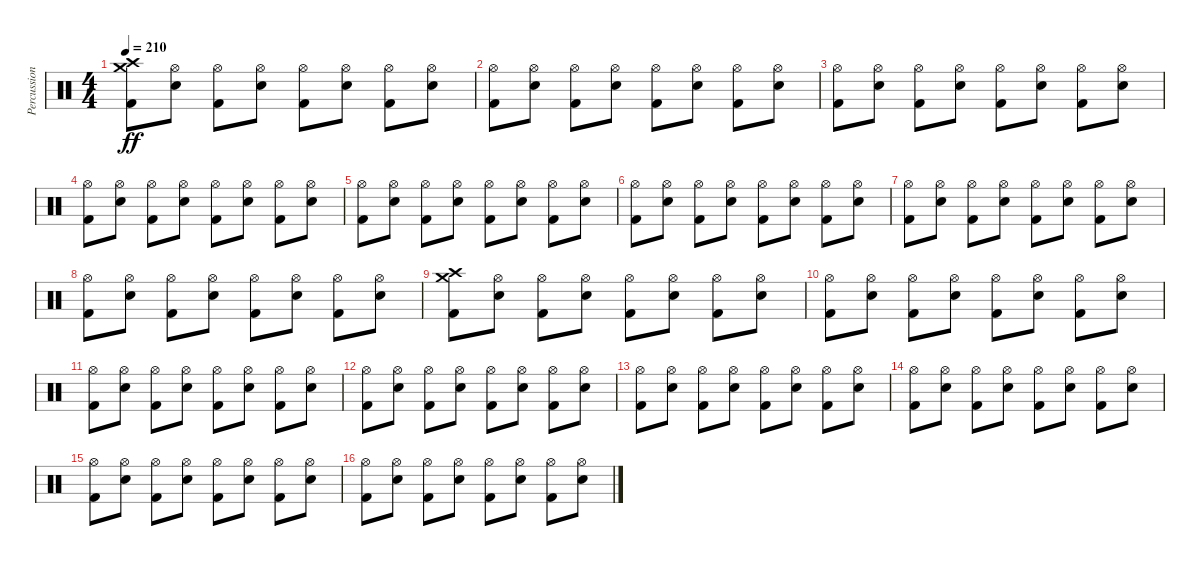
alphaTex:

\track ("Percussion" "Percussion") {instrument percussion}
\staff {score}
\articulation defaults
\ts (4 4)
\tempo 210
\clef neutral
\ks c
("Kick (hit) 2" "Crash medium (hit)" "Crash high (hit)").8{dy ff} ("Electric Snare (hit)" "Hi-Hat (open)").8 ("Kick (hit) 2" "Hi-Hat (open)").8 ("Electric Snare (hit)" "Hi-Hat (open)").8 ("Kick (hit) 2" "Hi-Hat (open)").8 ("Electric Snare (hit)" "Hi-Hat (open)").8 ("Kick (hit) 2" "Hi-Hat (open)").8 ("Electric Snare (hit)" "Hi-Hat (open)").8 |
("Kick (hit) 2" "Hi-Hat (open)").8 ("Electric Snare (hit)" "Hi-Hat (open)").8 ("Kick (hit) 2" "Hi-Hat (open)").8 ("Electric Snare (hit)" "Hi-Hat (open)").8 ("Kick (hit) 2" "Hi-Hat (open)").8 ("Electric Snare (hit)" "Hi-Hat (open)").8 ("Kick (hit) 2" "Hi-Hat (open)").8 ("Electric Snare (hit)" "Hi-Hat (open)").8 |
("Kick (hit) 2" "Hi-Hat (open)").8 ("Electric Snare (hit)" "Hi-Hat (open)").8 ("Kick (hit) 2" "Hi-Hat (open)").8 ("Electric Snare (hit)" "Hi-Hat (open)").8 ("Kick (hit) 2" "Hi-Hat (open)").8 ("Electric Snare (hit)" "Hi-Hat (open)").8 ("Kick (hit) 2" "Hi-Hat (open)").8 ("Electric Snare (hit)" "Hi-Hat (open)").8 |
("Kick (hit) 2" "Hi-Hat (open)").8 ("Electric Snare (hit)" "Hi-Hat (open)").8 ("Kick (hit) 2" "Hi-Hat (open)").8 ("Electric Snare (hit)" "Hi-Hat (open)").8 ("Kick (hit) 2" "Hi-Hat (open)").8 ("Electric Snare (hit)" "Hi-Hat (open)").8 ("Kick (hit) 2" "Hi-Hat (open)").8 ("Electric Snare (hit)" "Hi-Hat (open)").8 |
("Kick (hit) 2" "Hi-Hat (open)").8 ("Electric Snare (hit)" "Hi-Hat (open)").8 ("Kick (hit) 2" "Hi-Hat (open)").8 ("Electric Snare (hit)" "Hi-Hat (open)").8 ("Kick (hit) 2" "Hi-Hat (open)").8 ("Electric Snare (hit)" "Hi-Hat (open)").8 ("Kick (hit) 2" "Hi-Hat (open)").8 ("Electric Snare (hit)" "Hi-Hat (open)").8 |
("Kick (hit) 2" "Hi-Hat (open)").8 ("Electric Snare (hit)" "Hi-Hat (open)").8 ("Kick (hit) 2" "Hi-Hat (open)").8 ("Electric Snare (hit)" "Hi-Hat (open)").8 ("Kick (hit) 2" "Hi-Hat (open)").8 ("Electric Snare (hit)" "Hi-Hat (open)").8 ("Kick (hit) 2" "Hi-Hat (open)").8 ("Electric Snare (hit)" "Hi-Hat (open)").8 |
("Kick (hit) 2" "Hi-Hat (open)").8 ("Electric Snare (hit)" "Hi-Hat (open)").8 ("Kick (hit) 2" "Hi-Hat (open)").8 ("Electric Snare (hit)" "Hi-Hat (open)").8 ("Kick (hit) 2" "Hi-Hat (open)").8 ("Electric Snare (hit)" "Hi-Hat (open)").8 ("Kick (hit) 2" "Hi-Hat (open)").8 ("Electric Snare (hit)" "Hi-Hat (open)").8 |
("Kick (hit) 2" "Hi-Hat (open)").8 ("Electric Snare (hit)" "Hi-Hat (open)").8 ("Kick (hit) 2" "Hi-Hat (open)").8 ("Electric Snare (hit)" "Hi-Hat (open)").8 ("Kick (hit) 2" "Hi-Hat (open)").8 ("Electric Snare (hit)" "Hi-Hat (open)").8 ("Kick (hit) 2" "Hi-Hat (open)").8 ("Electric Snare (hit)" "Hi-Hat (open)").8 |
("Kick (hit) 2" "Crash medium (hit)" "Crash high (hit)").8 ("Electric Snare (hit)" "Hi-Hat (open)").8 ("Kick (hit) 2" "Hi-Hat (open)").8 ("Electric Snare (hit)" "Hi-Hat (open)").8 ("Kick (hit) 2" "Hi-Hat (open)").8 ("Electric Snare (hit)" "Hi-Hat (open)").8 ("Kick (hit) 2" "Hi-Hat (open)").8 ("Electric Snare (hit)" "Hi-Hat (open)").8 |
("Kick (hit) 2" "Hi-Hat (open)").8 ("Electric Snare (hit)" "Hi-Hat (open)").8 ("Kick (hit) 2" "Hi-Hat (open)").8 ("Electric Snare (hit)" "Hi-Hat (open)").8 ("Kick (hit) 2" "Hi-Hat (open)").8 ("Electric Snare (hit)" "Hi-Hat (open)").8 ("Kick (hit) 2" "Hi-Hat (open)").8 ("Electric Snare (hit)" "Hi-Hat (open)").8 |
("Kick (hit) 2" "Hi-Hat (open)").8 ("Electric Snare (hit)" "Hi-Hat (open)").8 ("Kick (hit) 2" "Hi-Hat (open)").8 ("Electric Snare (hit)" "Hi-Hat (open)").8 ("Kick (hit) 2" "Hi-Hat (open)").8 ("Electric Snare (hit)" "Hi-Hat (open)").8 ("Kick (hit) 2" "Hi-Hat (open)").8 ("Electric Snare (hit)" "Hi-Hat (open)").8 |
("Kick (hit) 2" "Hi-Hat (open)").8 ("Electric Snare (hit)" "Hi-Hat (open)").8 ("Kick (hit) 2" "Hi-Hat (open)").8 ("Electric Snare (hit)" "Hi-Hat (open)").8 ("Kick (hit) 2" "Hi-Hat (open)").8 ("Electric Snare (hit)" "Hi-Hat (open)").8 ("Kick (hit) 2" "Hi-Hat (open)").8 ("Electric Snare (hit)" "Hi-Hat (open)").8 |
("Kick (hit) 2" "Hi-Hat (open)").8 ("Electric Snare (hit)" "Hi-Hat (open)").8 ("Kick (hit) 2" "Hi-Hat (open)").8 ("Electric Snare (hit)" "Hi-Hat (open)").8 ("Kick (hit) 2" "Hi-Hat (open)").8 ("Electric Snare (hit)" "Hi-Hat (open)").8 ("Kick (hit) 2" "Hi-Hat (open)").8 ("Electric Snare (hit)" "Hi-Hat (open)").8 |
("Kick (hit) 2" "Hi-Hat (open)").8 ("Electric Snare (hit)" "Hi-Hat (open)").8 ("Kick (hit) 2" "Hi-Hat (open)").8 ("Electric Snare (hit)" "Hi-Hat (open)").8 ("Kick (hit) 2" "Hi-Hat (open)").8 ("Electric Snare (hit)" "Hi-Hat (open)").8 ("Kick (hit) 2" "Hi-Hat (open)").8 ("Electric Snare (hit)" "Hi-Hat (open)").8 |
("Kick (hit) 2" "Hi-Hat (open)").8 ("Electric Snare (hit)" "Hi-Hat (open)").8 ("Kick (hit) 2" "Hi-Hat (open)").8 ("Electric Snare (hit)" "Hi-Hat (open)").8 ("Kick (hit) 2" "Hi-Hat (open)").8 ("Electric Snare (hit)" "Hi-Hat (open)").8 ("Kick (hit) 2" "Hi-Hat (open)").8 ("Electric Snare (hit)" "Hi-Hat (open)").8 |
("Kick (hit) 2" "Hi-Hat (open)").8 ("Electric Snare (hit)" "Hi-Hat (open)").8 ("Kick (hit) 2" "Hi-Hat (open)").8 ("Electric Snare (hit)" "Hi-Hat (open)").8 ("Kick (hit) 2" "Hi-Hat (open)").8 ("Electric Snare (hit)" "Hi-Hat (open)").8 ("Kick (hit) 2" "Hi-Hat (open)").8 ("Electric Snare (hit)" "Hi-Hat (open)").8
